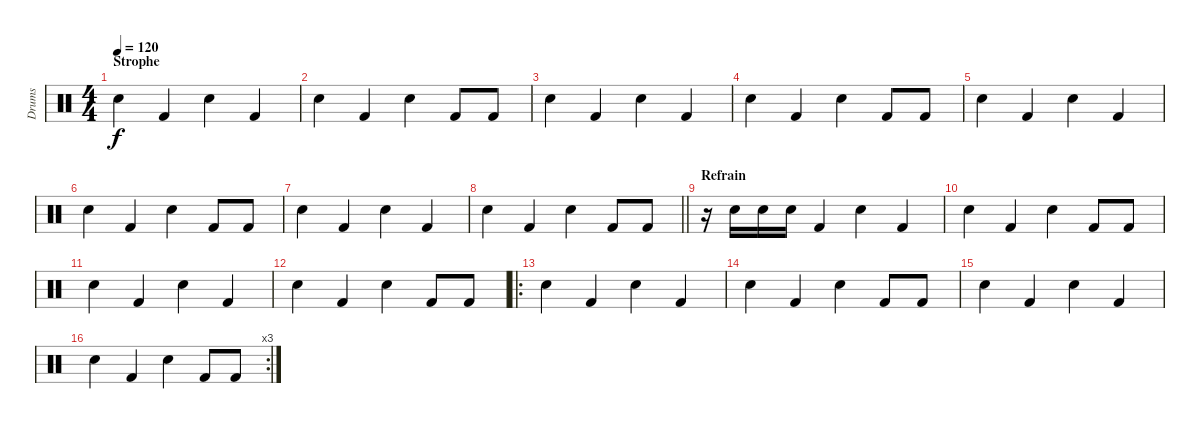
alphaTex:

\track ("Drums" "Drums") {instrument percussion}
\staff {score}
\articulation defaults
\ts (4 4)
\section ("" "Strophe")
\tempo 120
\clef neutral
\ks c "Snare (hit) 2".4{dy f} "Kick (hit) 2".4 "Snare (hit) 2".4 "Kick (hit) 2".4
|
"Snare (hit) 2".4 "Kick (hit) 2".4 "Snare (hit) 2".4 "Kick (hit) 2".8 "Kick (hit) 2".8 |
"Snare (hit) 2".4 "Kick (hit) 2".4 "Snare (hit) 2".4 "Kick (hit) 2".4 |
"Snare (hit) 2".4 "Kick (hit) 2".4 "Snare (hit) 2".4 "Kick (hit) 2".8 "Kick (hit) 2".8 |
"Snare (hit) 2".4 "Kick (hit) 2".4 "Snare (hit) 2".4 "Kick (hit) 2".4 |
"Snare (hit) 2".4 "Kick (hit) 2".4 "Snare (hit) 2".4 "Kick (hit) 2".8 "Kick (hit) 2".8 |
"Snare (hit) 2".4 "Kick (hit) 2".4 "Snare (hit) 2".4 "Kick (hit) 2".4 |
\barLineRight lightlight "Snare (hit) 2".4 "Kick (hit) 2".4 "Snare (hit) 2".4 "Kick (hit) 2".8 "Kick (hit) 2".8
|
\section ("" "Refrain")
r.16 "Snare (hit) 2".16 "Snare (hit) 2".16 "Snare (hit) 2".16 "Kick (hit) 2".4 "Snare (hit) 2".4 "Kick (hit) 2".4 |
"Snare (hit) 2".4 "Kick (hit) 2".4 "Snare (hit) 2".4 "Kick (hit) 2".8 "Kick (hit) 2".8 |
"Snare (hit) 2".4 "Kick (hit) 2".4 "Snare (hit) 2".4 "Kick (hit) 2".4 |
"Snare (hit) 2".4 "Kick (hit) 2".4 "Snare (hit) 2".4 "Kick (hit) 2".8 "Kick (hit) 2".8 |
\ro "Snare (hit) 2".4 "Kick (hit) 2".4 "Snare (hit) 2".4 "Kick (hit) 2".4
|
"Snare (hit) 2".4 "Kick (hit) 2".4 "Snare (hit) 2".4 "Kick (hit) 2".8 "Kick (hit) 2".8 |
"Snare (hit) 2".4 "Kick (hit) 2".4 "Snare (hit) 2".4 "Kick (hit) 2".4 |
\rc 3 "Snare (hit) 2".4 "Kick (hit) 2".4 "Snare (hit) 2".4 "Kick (hit) 2".8 "Kick (hit) 2".8
